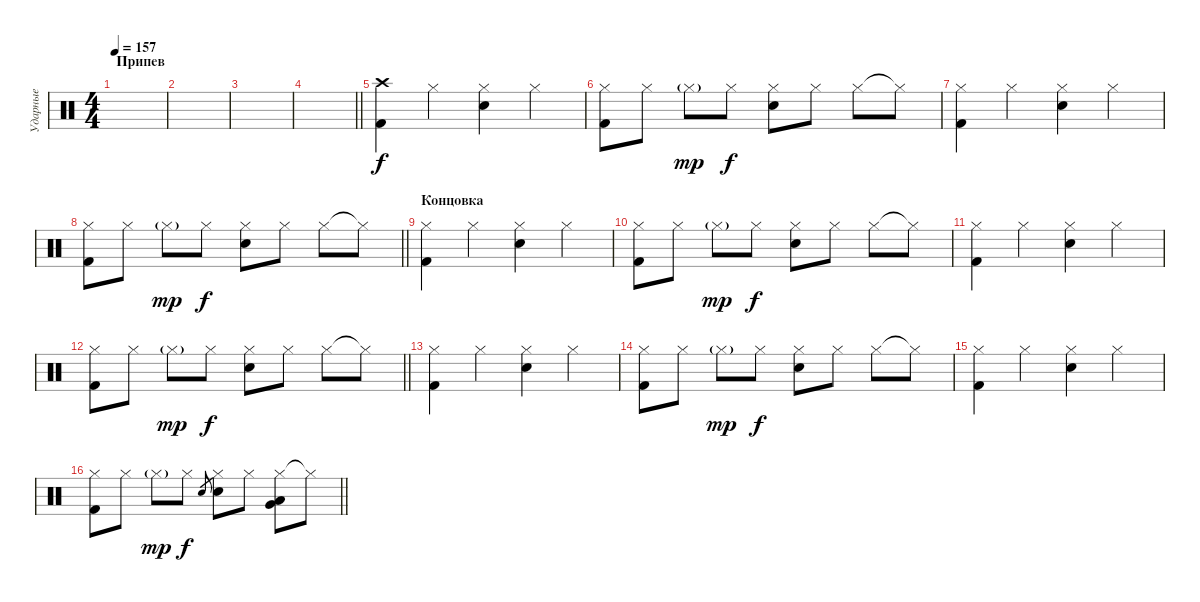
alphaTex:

\track ("Ударные" "Ударные") {instrument percussion}
\staff {score}
\articulation defaults
\ts (4 4)
\section ("" "Припев")
\tempo 157
\clef neutral
\ks c
|
|
|
\barLineRight lightlight
|
("Crash high (hit)" "Kick (hit) 2").4 "Hi-Hat (closed)".4 ("Hi-Hat (closed)" "Snare (hit) 2").4 "Hi-Hat (closed)".4 |
("Hi-Hat (closed)" "Kick (hit) 2").8 "Hi-Hat (closed)".8 "Hi-Hat (closed)"{g}.8{dy mp} "Hi-Hat (closed)".8{dy f} ("Hi-Hat (closed)" "Snare (hit) 2").8 "Hi-Hat (closed)".8 "Hi-Hat (closed)".8 "Hi-Hat (closed)"{t}.8 |
("Hi-Hat (closed)" "Kick (hit) 2").4 "Hi-Hat (closed)".4 ("Hi-Hat (closed)" "Snare (hit) 2").4 "Hi-Hat (closed)".4 |
\barLineRight lightlight
("Hi-Hat (closed)" "Kick (hit) 2").8 "Hi-Hat (closed)".8 "Hi-Hat (closed)"{g}.8{dy mp} "Hi-Hat (closed)".8{dy f} ("Hi-Hat (closed)" "Snare (hit) 2").8 "Hi-Hat (closed)".8 "Hi-Hat (closed)".8 "Hi-Hat (closed)"{t}.8 |
\section ("" "Концовка")
("Hi-Hat (closed)" "Kick (hit) 2").4 "Hi-Hat (closed)".4 ("Hi-Hat (closed)" "Snare (hit) 2").4 "Hi-Hat (closed)".4 |
("Hi-Hat (closed)" "Kick (hit) 2").8 "Hi-Hat (closed)".8 "Hi-Hat (closed)"{g}.8{dy mp} "Hi-Hat (closed)".8{dy f} ("Hi-Hat (closed)" "Snare (hit) 2").8 "Hi-Hat (closed)".8 "Hi-Hat (closed)".8 "Hi-Hat (closed)"{t}.8 |
("Hi-Hat (closed)" "Kick (hit) 2").4 "Hi-Hat (closed)".4 ("Hi-Hat (closed)" "Snare (hit) 2").4 "Hi-Hat (closed)".4 |
\barLineRight lightlight
("Hi-Hat (closed)" "Kick (hit) 2").8 "Hi-Hat (closed)".8 "Hi-Hat (closed)"{g}.8{dy mp} "Hi-Hat (closed)".8{dy f} ("Hi-Hat (closed)" "Snare (hit) 2").8 "Hi-Hat (closed)".8 "Hi-Hat (closed)".8 "Hi-Hat (closed)"{t}.8 |
("Hi-Hat (closed)" "Kick (hit) 2").4 "Hi-Hat (closed)".4 ("Hi-Hat (closed)" "Snare (hit) 2").4 "Hi-Hat (closed)".4 |
("Hi-Hat (closed)" "Kick (hit) 2").8 "Hi-Hat (closed)".8 "Hi-Hat (closed)"{g}.8{dy mp} "Hi-Hat (closed)".8{dy f} ("Hi-Hat (closed)" "Snare (hit) 2").8 "Hi-Hat (closed)".8 "Hi-Hat (closed)".8 "Hi-Hat (closed)"{t}.8 |
("Hi-Hat (closed)" "Kick (hit) 2").4 "Hi-Hat (closed)".4 ("Hi-Hat (closed)" "Snare (hit) 2").4 "Hi-Hat (closed)".4 |
\barLineRight lightlight
("Hi-Hat (closed)" "Kick (hit) 2").8 "Hi-Hat (closed)".8 "Hi-Hat (closed)"{g}.8{dy mp} "Hi-Hat (closed)".8{dy f} "Snare (hit) 2".8{gr} ("Hi-Hat (closed)" "Snare (hit) 2").8 "Hi-Hat (closed)".8 ("Hi-Hat (closed)" "Very Low Tom (hit)" "Low Tom (hit)").8 "Hi-Hat (closed)"{t}.8
